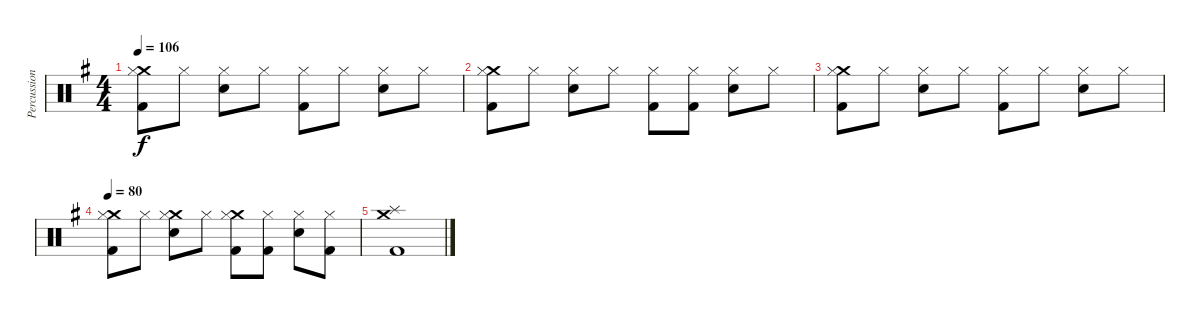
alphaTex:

\track ("Percussion" "Percussion") {instrument percussion}
\staff {score}
\articulation defaults
\ts (4 4)
\tempo 106
\clef neutral
\ks g
("Crash medium (hit)" "Hi-Hat (closed)" "Kick (hit) 2").8{dy f} "Hi-Hat (closed)".8 ("Hi-Hat (closed)" "Electric Snare (hit)").8 "Hi-Hat (closed)".8 ("Hi-Hat (closed)" "Kick (hit) 2").8 "Hi-Hat (closed)".8 ("Hi-Hat (closed)" "Electric Snare (hit)").8 "Hi-Hat (closed)".8 |
("Crash medium (hit)" "Hi-Hat (closed)" "Kick (hit) 2").8 "Hi-Hat (closed)".8 ("Hi-Hat (closed)" "Electric Snare (hit)").8 "Hi-Hat (closed)".8 ("Hi-Hat (closed)" "Kick (hit) 2").8 ("Hi-Hat (closed)" "Kick (hit) 2").8 ("Hi-Hat (closed)" "Electric Snare (hit)").8 "Hi-Hat (closed)".8 |
("Crash medium (hit)" "Hi-Hat (closed)" "Kick (hit) 2").8 "Hi-Hat (closed)".8 ("Hi-Hat (closed)" "Electric Snare (hit)").8 "Hi-Hat (closed)".8 ("Hi-Hat (closed)" "Kick (hit) 2").8 "Hi-Hat (closed)".8 ("Hi-Hat (closed)" "Electric Snare (hit)").8 "Hi-Hat (closed)".8 |
\tempo 80
("Crash medium (hit)" "Hi-Hat (closed)" "Kick (hit) 2").8 "Hi-Hat (closed)".8 ("Crash medium (hit)" "Hi-Hat (closed)" "Electric Snare (hit)").8 "Hi-Hat (closed)".8 ("Crash medium (hit)" "Hi-Hat (closed)" "Kick (hit) 2").8 ("Hi-Hat (closed)" "Kick (hit) 2").8 ("Hi-Hat (closed)" "Electric Snare (hit)").8 ("Hi-Hat (closed)" "Kick (hit) 2").8 |
("Splash (hit)" "Crash medium (hit)" "Kick (hit) 2").1
